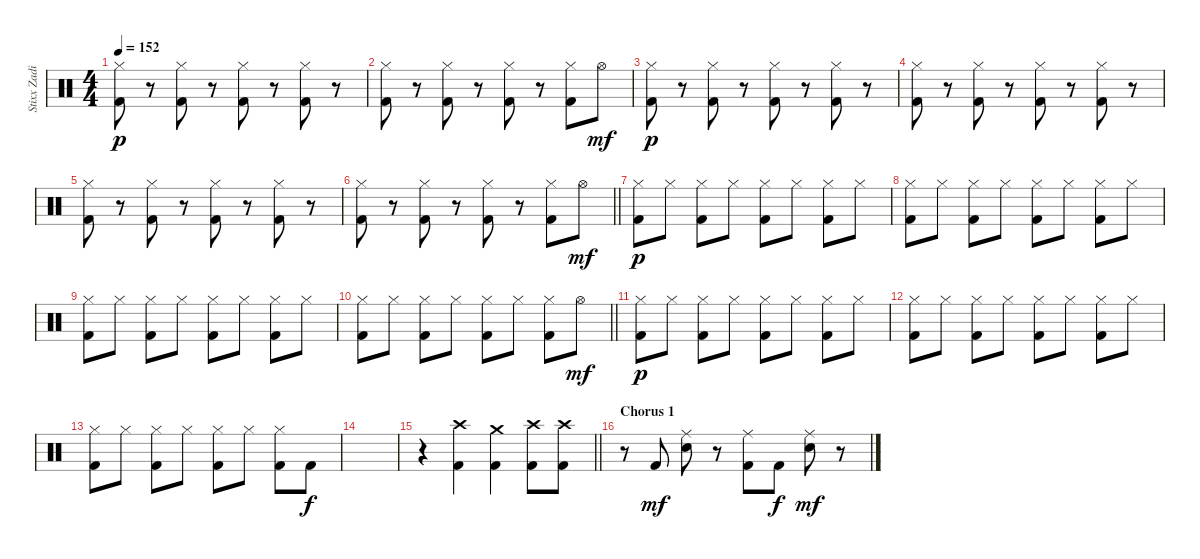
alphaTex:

\track ("Stixx Zadinia (Drums)" "Stixx Zadi") {instrument percussion}
\staff {score}
\articulation defaults
\ts (4 4)
\tempo 152
\clef neutral
\ks c
("Hi-Hat (closed)" "Kick (hit) 2").8{dy p} r.8 ("Hi-Hat (closed)" "Kick (hit) 2").8 r.8 ("Hi-Hat (closed)" "Kick (hit) 2").8 r.8 ("Hi-Hat (closed)" "Kick (hit) 2").8 r.8 |
("Hi-Hat (closed)" "Kick (hit) 2").8 r.8 ("Hi-Hat (closed)" "Kick (hit) 2").8 r.8 ("Hi-Hat (closed)" "Kick (hit) 2").8 r.8 ("Hi-Hat (closed)" "Kick (hit) 2").8 "Hi-Hat (open)".8{dy mf} |
("Hi-Hat (closed)" "Kick (hit) 2").8{dy p} r.8 ("Hi-Hat (closed)" "Kick (hit) 2").8 r.8 ("Hi-Hat (closed)" "Kick (hit) 2").8 r.8 ("Hi-Hat (closed)" "Kick (hit) 2").8 r.8 |
("Hi-Hat (closed)" "Kick (hit) 2").8 r.8 ("Hi-Hat (closed)" "Kick (hit) 2").8 r.8 ("Hi-Hat (closed)" "Kick (hit) 2").8 r.8 ("Hi-Hat (closed)" "Kick (hit) 2").8 r.8 |
("Hi-Hat (closed)" "Kick (hit) 2").8 r.8 ("Hi-Hat (closed)" "Kick (hit) 2").8 r.8 ("Hi-Hat (closed)" "Kick (hit) 2").8 r.8 ("Hi-Hat (closed)" "Kick (hit) 2").8 r.8 |
\barLineRight lightlight
("Hi-Hat (closed)" "Kick (hit) 2").8 r.8 ("Hi-Hat (closed)" "Kick (hit) 2").8 r.8 ("Hi-Hat (closed)" "Kick (hit) 2").8 r.8 ("Hi-Hat (closed)" "Kick (hit) 2").8 "Hi-Hat (open)".8{dy mf} |
\section ("" "")
("Hi-Hat (closed)" "Kick (hit) 2").8{dy p} "Hi-Hat (closed)".8 ("Hi-Hat (closed)" "Kick (hit) 2").8 "Hi-Hat (closed)".8 ("Hi-Hat (closed)" "Kick (hit) 2").8 "Hi-Hat (closed)".8 ("Hi-Hat (closed)" "Kick (hit) 2").8 "Hi-Hat (closed)".8 |
("Hi-Hat (closed)" "Kick (hit) 2").8 "Hi-Hat (closed)".8 ("Hi-Hat (closed)" "Kick (hit) 2").8 "Hi-Hat (closed)".8 ("Hi-Hat (closed)" "Kick (hit) 2").8 "Hi-Hat (closed)".8 ("Hi-Hat (closed)" "Kick (hit) 2").8 "Hi-Hat (closed)".8 |
("Hi-Hat (closed)" "Kick (hit) 2").8 "Hi-Hat (closed)".8 ("Hi-Hat (closed)" "Kick (hit) 2").8 "Hi-Hat (closed)".8 ("Hi-Hat (closed)" "Kick (hit) 2").8 "Hi-Hat (closed)".8 ("Hi-Hat (closed)" "Kick (hit) 2").8 "Hi-Hat (closed)".8 |
\barLineRight lightlight
("Hi-Hat (closed)" "Kick (hit) 2").8 "Hi-Hat (closed)".8 ("Hi-Hat (closed)" "Kick (hit) 2").8 "Hi-Hat (closed)".8 ("Hi-Hat (closed)" "Kick (hit) 2").8 "Hi-Hat (closed)".8 ("Hi-Hat (closed)" "Kick (hit) 2").8 "Hi-Hat (open)".8{dy mf} |
("Hi-Hat (closed)" "Kick (hit) 2").8{dy p} "Hi-Hat (closed)".8 ("Hi-Hat (closed)" "Kick (hit) 2").8 "Hi-Hat (closed)".8 ("Hi-Hat (closed)" "Kick (hit) 2").8 "Hi-Hat (closed)".8 ("Hi-Hat (closed)" "Kick (hit) 2").8 "Hi-Hat (closed)".8 |
("Hi-Hat (closed)" "Kick (hit) 2").8 "Hi-Hat (closed)".8 ("Hi-Hat (closed)" "Kick (hit) 2").8 "Hi-Hat (closed)".8 ("Hi-Hat (closed)" "Kick (hit) 2").8 "Hi-Hat (closed)".8 ("Hi-Hat (closed)" "Kick (hit) 2").8 "Hi-Hat (closed)".8 |
("Hi-Hat (closed)" "Kick (hit) 2").8 "Hi-Hat (closed)".8 ("Hi-Hat (closed)" "Kick (hit) 2").8 "Hi-Hat (closed)".8 ("Hi-Hat (closed)" "Kick (hit) 2").8 "Hi-Hat (closed)".8 ("Hi-Hat (closed)" "Kick (hit) 2").8 "Kick (hit) 2".8{dy f} |
|
\barLineRight lightlight
r.4 ("Crash high (hit)" "Kick (hit) 2").4 ("Crash medium (hit)" "Kick (hit) 2").4 ("Crash high (hit)" "Kick (hit) 2").8 ("Crash high (hit)" "Kick (hit) 2").8 |
\section ("" "Chorus 1")
r.8 "Kick (hit) 2".8{dy mf} ("Ride (middle)" "Snare (hit) 2").8 r.8 ("Ride (middle)" "Kick (hit) 2").8 "Kick (hit) 2".8{dy f} ("Ride (middle)" "Snare (hit) 2").8{dy mf} r.8
